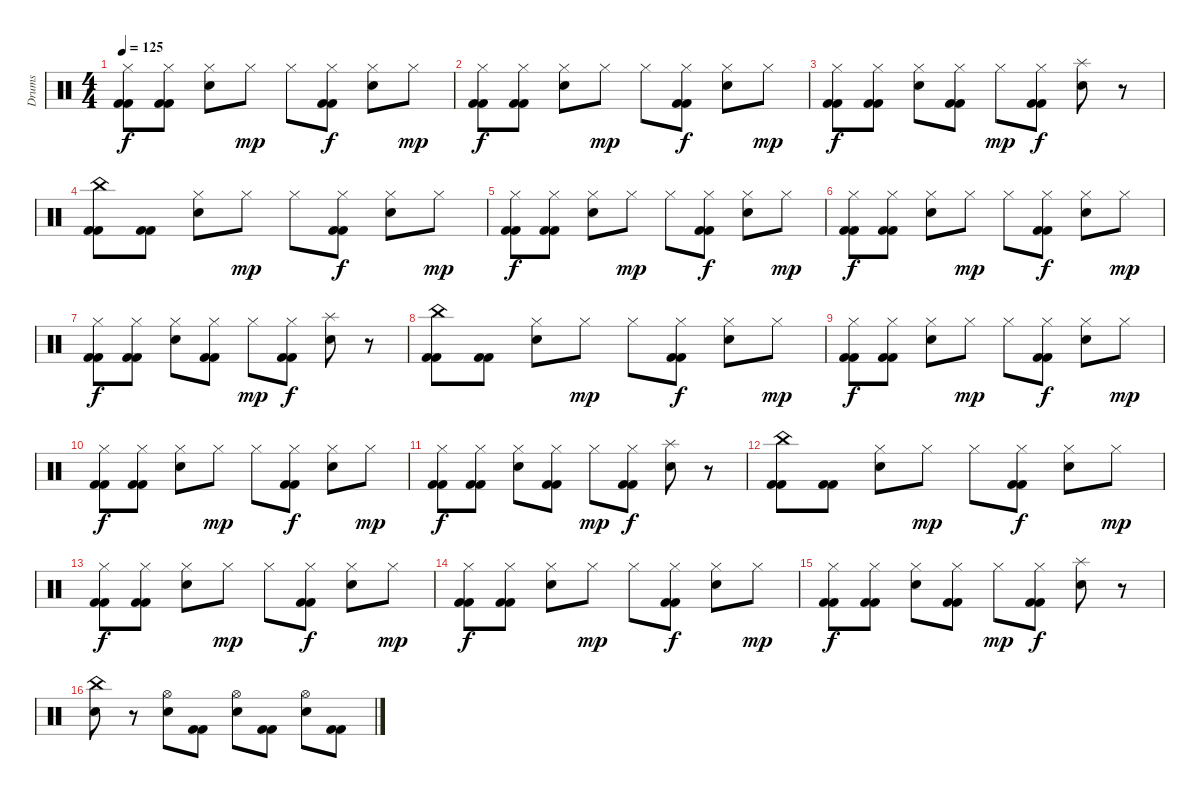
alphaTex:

\track ("Drums" "Drums") {instrument percussion}
\staff {score}
\articulation defaults
\ts (4 4)
\tempo 125
\clef neutral
\ks c
("Hi-Hat (closed)" "Kick (hit) 2" "Kick (hit) 2").8{dy f} ("Hi-Hat (closed)" "Kick (hit) 2" "Kick (hit) 2").8 ("Hi-Hat (closed)" "Snare (hit) 2").8 "Hi-Hat (closed)".8{dy mp} "Hi-Hat (closed)".8 ("Hi-Hat (closed)" "Kick (hit) 2" "Kick (hit) 2").8{dy f} ("Hi-Hat (closed)" "Snare (hit) 2").8 "Hi-Hat (closed)".8{dy mp} |
("Hi-Hat (closed)" "Kick (hit) 2" "Kick (hit) 2").8{dy f} ("Hi-Hat (closed)" "Kick (hit) 2" "Kick (hit) 2").8 ("Hi-Hat (closed)" "Snare (hit) 2").8 "Hi-Hat (closed)".8{dy mp} "Hi-Hat (closed)".8 ("Hi-Hat (closed)" "Kick (hit) 2" "Kick (hit) 2").8{dy f} ("Hi-Hat (closed)" "Snare (hit) 2").8 "Hi-Hat (closed)".8{dy mp} |
("Hi-Hat (closed)" "Kick (hit) 2" "Kick (hit) 2").8{dy f} ("Hi-Hat (closed)" "Kick (hit) 2" "Kick (hit) 2").8 ("Hi-Hat (closed)" "Snare (hit) 2").8 ("Hi-Hat (closed)" "Kick (hit) 2" "Kick (hit) 2").8 "Hi-Hat (closed)".8{dy mp} ("Hi-Hat (closed)" "Kick (hit) 2" "Kick (hit) 2").8{dy f} ("Splash (hit)" "Snare (hit) 2").8 r.8 |
("China (hit)" "Kick (hit) 2" "Kick (hit) 2").8 ("Kick (hit) 2" "Kick (hit) 2").8 ("Hi-Hat (closed)" "Snare (hit) 2").8 "Hi-Hat (closed)".8{dy mp} "Hi-Hat (closed)".8 ("Hi-Hat (closed)" "Kick (hit) 2" "Kick (hit) 2").8{dy f} ("Hi-Hat (closed)" "Snare (hit) 2").8 "Hi-Hat (closed)".8{dy mp} |
("Hi-Hat (closed)" "Kick (hit) 2" "Kick (hit) 2").8{dy f} ("Hi-Hat (closed)" "Kick (hit) 2" "Kick (hit) 2").8 ("Hi-Hat (closed)" "Snare (hit) 2").8 "Hi-Hat (closed)".8{dy mp} "Hi-Hat (closed)".8 ("Hi-Hat (closed)" "Kick (hit) 2" "Kick (hit) 2").8{dy f} ("Hi-Hat (closed)" "Snare (hit) 2").8 "Hi-Hat (closed)".8{dy mp} |
("Hi-Hat (closed)" "Kick (hit) 2" "Kick (hit) 2").8{dy f} ("Hi-Hat (closed)" "Kick (hit) 2" "Kick (hit) 2").8 ("Hi-Hat (closed)" "Snare (hit) 2").8 "Hi-Hat (closed)".8{dy mp} "Hi-Hat (closed)".8 ("Hi-Hat (closed)" "Kick (hit) 2" "Kick (hit) 2").8{dy f} ("Hi-Hat (closed)" "Snare (hit) 2").8 "Hi-Hat (closed)".8{dy mp} |
("Hi-Hat (closed)" "Kick (hit) 2" "Kick (hit) 2").8{dy f} ("Hi-Hat (closed)" "Kick (hit) 2" "Kick (hit) 2").8 ("Hi-Hat (closed)" "Snare (hit) 2").8 ("Hi-Hat (closed)" "Kick (hit) 2" "Kick (hit) 2").8 "Hi-Hat (closed)".8{dy mp} ("Hi-Hat (closed)" "Kick (hit) 2" "Kick (hit) 2").8{dy f} ("Splash (hit)" "Snare (hit) 2").8 r.8 |
("China (hit)" "Kick (hit) 2" "Kick (hit) 2").8 ("Kick (hit) 2" "Kick (hit) 2").8 ("Hi-Hat (closed)" "Snare (hit) 2").8 "Hi-Hat (closed)".8{dy mp} "Hi-Hat (closed)".8 ("Hi-Hat (closed)" "Kick (hit) 2" "Kick (hit) 2").8{dy f} ("Hi-Hat (closed)" "Snare (hit) 2").8 "Hi-Hat (closed)".8{dy mp} |
("Hi-Hat (closed)" "Kick (hit) 2" "Kick (hit) 2").8{dy f} ("Hi-Hat (closed)" "Kick (hit) 2" "Kick (hit) 2").8 ("Hi-Hat (closed)" "Snare (hit) 2").8 "Hi-Hat (closed)".8{dy mp} "Hi-Hat (closed)".8 ("Hi-Hat (closed)" "Kick (hit) 2" "Kick (hit) 2").8{dy f} ("Hi-Hat (closed)" "Snare (hit) 2").8 "Hi-Hat (closed)".8{dy mp} |
("Hi-Hat (closed)" "Kick (hit) 2" "Kick (hit) 2").8{dy f} ("Hi-Hat (closed)" "Kick (hit) 2" "Kick (hit) 2").8 ("Hi-Hat (closed)" "Snare (hit) 2").8 "Hi-Hat (closed)".8{dy mp} "Hi-Hat (closed)".8 ("Hi-Hat (closed)" "Kick (hit) 2" "Kick (hit) 2").8{dy f} ("Hi-Hat (closed)" "Snare (hit) 2").8 "Hi-Hat (closed)".8{dy mp} |
("Hi-Hat (closed)" "Kick (hit) 2" "Kick (hit) 2").8{dy f} ("Hi-Hat (closed)" "Kick (hit) 2" "Kick (hit) 2").8 ("Hi-Hat (closed)" "Snare (hit) 2").8 ("Hi-Hat (closed)" "Kick (hit) 2" "Kick (hit) 2").8 "Hi-Hat (closed)".8{dy mp} ("Hi-Hat (closed)" "Kick (hit) 2" "Kick (hit) 2").8{dy f} ("Splash (hit)" "Snare (hit) 2").8 r.8 |
("China (hit)" "Kick (hit) 2" "Kick (hit) 2").8 ("Kick (hit) 2" "Kick (hit) 2").8 ("Hi-Hat (closed)" "Snare (hit) 2").8 "Hi-Hat (closed)".8{dy mp} "Hi-Hat (closed)".8 ("Hi-Hat (closed)" "Kick (hit) 2" "Kick (hit) 2").8{dy f} ("Hi-Hat (closed)" "Snare (hit) 2").8 "Hi-Hat (closed)".8{dy mp} |
("Hi-Hat (closed)" "Kick (hit) 2" "Kick (hit) 2").8{dy f} ("Hi-Hat (closed)" "Kick (hit) 2" "Kick (hit) 2").8 ("Hi-Hat (closed)" "Snare (hit) 2").8 "Hi-Hat (closed)".8{dy mp} "Hi-Hat (closed)".8 ("Hi-Hat (closed)" "Kick (hit) 2" "Kick (hit) 2").8{dy f} ("Hi-Hat (closed)" "Snare (hit) 2").8 "Hi-Hat (closed)".8{dy mp} |
("Hi-Hat (closed)" "Kick (hit) 2" "Kick (hit) 2").8{dy f} ("Hi-Hat (closed)" "Kick (hit) 2" "Kick (hit) 2").8 ("Hi-Hat (closed)" "Snare (hit) 2").8 "Hi-Hat (closed)".8{dy mp} "Hi-Hat (closed)".8 ("Hi-Hat (closed)" "Kick (hit) 2" "Kick (hit) 2").8{dy f} ("Hi-Hat (closed)" "Snare (hit) 2").8 "Hi-Hat (closed)".8{dy mp} |
("Hi-Hat (closed)" "Kick (hit) 2" "Kick (hit) 2").8{dy f} ("Hi-Hat (closed)" "Kick (hit) 2" "Kick (hit) 2").8 ("Hi-Hat (closed)" "Snare (hit) 2").8 ("Hi-Hat (closed)" "Kick (hit) 2" "Kick (hit) 2").8 "Hi-Hat (closed)".8{dy mp} ("Hi-Hat (closed)" "Kick (hit) 2" "Kick (hit) 2").8{dy f} ("Splash (hit)" "Snare (hit) 2").8 r.8 |
("China (hit)" "Snare (hit) 2").8 r.8 ("Hi-Hat (open)" "Snare (hit) 2").8 ("Kick (hit) 2" "Kick (hit) 2").8 ("Hi-Hat (open)" "Snare (hit) 2").8 ("Kick (hit) 2" "Kick (hit) 2").8 ("Hi-Hat (open)" "Snare (hit) 2").8 ("Kick (hit) 2" "Kick (hit) 2").8
